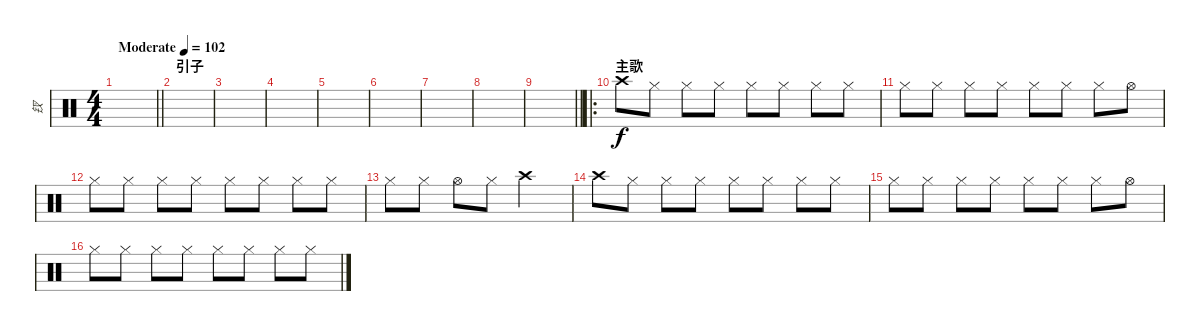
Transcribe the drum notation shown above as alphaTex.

\track ("钗" "钗") {instrument percussion}
\staff {score}
\articulation defaults
\ts (4 4)
\tempo (102 "Moderate")
\clef neutral
\barLineRight lightlight
\ks c
|
\section ("" "引子")
|
|
|
|
|
|
|
\barLineRight lightlight
|
\ro
\section ("" "主歌")
"Crash high (hit)".8 "Hi-Hat (closed)".8 "Hi-Hat (closed)".8 "Hi-Hat (closed)".8 "Hi-Hat (closed)".8 "Hi-Hat (closed)".8 "Hi-Hat (closed)".8 "Hi-Hat (closed)".8 |
"Hi-Hat (closed)".8 "Hi-Hat (closed)".8 "Hi-Hat (closed)".8 "Hi-Hat (closed)".8 "Hi-Hat (closed)".8 "Hi-Hat (closed)".8 "Hi-Hat (closed)".8 "Hi-Hat (open)".8 |
"Hi-Hat (closed)".8 "Hi-Hat (closed)".8 "Hi-Hat (closed)".8 "Hi-Hat (closed)".8 "Hi-Hat (closed)".8 "Hi-Hat (closed)".8 "Hi-Hat (closed)".8 "Hi-Hat (closed)".8 |
"Hi-Hat (closed)".8 "Hi-Hat (closed)".8 "Hi-Hat (open)".8 "Hi-Hat (closed)".8 "Crash high (hit)".2 |
"Crash high (hit)".8 "Hi-Hat (closed)".8 "Hi-Hat (closed)".8 "Hi-Hat (closed)".8 "Hi-Hat (closed)".8 "Hi-Hat (closed)".8 "Hi-Hat (closed)".8 "Hi-Hat (closed)".8 |
"Hi-Hat (closed)".8 "Hi-Hat (closed)".8 "Hi-Hat (closed)".8 "Hi-Hat (closed)".8 "Hi-Hat (closed)".8 "Hi-Hat (closed)".8 "Hi-Hat (closed)".8 "Hi-Hat (open)".8 |
"Hi-Hat (closed)".8 "Hi-Hat (closed)".8 "Hi-Hat (closed)".8 "Hi-Hat (closed)".8 "Hi-Hat (closed)".8 "Hi-Hat (closed)".8 "Hi-Hat (closed)".8 "Hi-Hat (closed)".8
